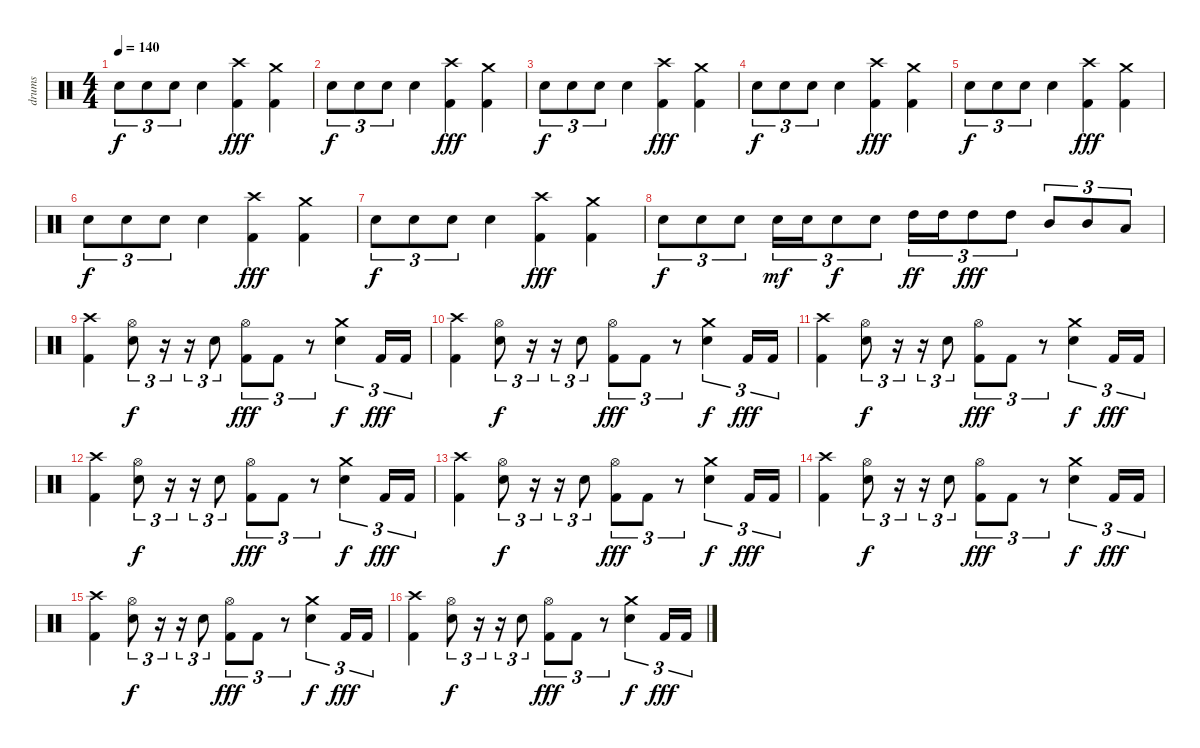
\track ("drums" "drums") {instrument percussion}
\staff {score}
\articulation defaults
\ts (4 4)
\tempo 140
\clef neutral
\ks c "Snare (hit) 2".8{tu (3 2) dy f} "Snare (hit) 2".8{tu (3 2)} "Snare (hit) 2".8{tu (3 2)} "Snare (hit) 2".4
("Crash high (hit)" "Kick (hit) 2").4{dy fff} ("Crash medium (hit)" "Kick (hit) 2").4 |
"Snare (hit) 2".8{tu (3 2) dy f} "Snare (hit) 2".8{tu (3 2)} "Snare (hit) 2".8{tu (3 2)} "Snare (hit) 2".4 ("Crash high (hit)" "Kick (hit) 2").4{dy fff} ("Crash medium (hit)" "Kick (hit) 2").4 |
"Snare (hit) 2".8{tu (3 2) dy f} "Snare (hit) 2".8{tu (3 2)} "Snare (hit) 2".8{tu (3 2)} "Snare (hit) 2".4 ("Crash high (hit)" "Kick (hit) 2").4{dy fff} ("Crash medium (hit)" "Kick (hit) 2").4 |
"Snare (hit) 2".8{tu (3 2) dy f} "Snare (hit) 2".8{tu (3 2)} "Snare (hit) 2".8{tu (3 2)} "Snare (hit) 2".4 ("Crash high (hit)" "Kick (hit) 2").4{dy fff} ("Crash medium (hit)" "Kick (hit) 2").4 |
"Snare (hit) 2".8{tu (3 2) dy f} "Snare (hit) 2".8{tu (3 2)} "Snare (hit) 2".8{tu (3 2)} "Snare (hit) 2".4 ("Crash high (hit)" "Kick (hit) 2").4{dy fff} ("Crash medium (hit)" "Kick (hit) 2").4 |
"Snare (hit) 2".8{tu (3 2) dy f} "Snare (hit) 2".8{tu (3 2)} "Snare (hit) 2".8{tu (3 2)} "Snare (hit) 2".4 ("Crash high (hit)" "Kick (hit) 2").4{dy fff} ("Crash medium (hit)" "Kick (hit) 2").4 |
"Snare (hit) 2".8{tu (3 2) dy f} "Snare (hit) 2".8{tu (3 2)} "Snare (hit) 2".8{tu (3 2)} "Snare (hit) 2".4 ("Crash high (hit)" "Kick (hit) 2").4{dy fff} ("Crash medium (hit)" "Kick (hit) 2").4 |
"Snare (hit) 2".8{tu (3 2) dy f} "Snare (hit) 2".8{tu (3 2)} "Snare (hit) 2".8{tu (3 2)} "Snare (hit) 2".16{tu (3 2) dy mf} "Snare (hit) 2".16{tu (3 2)} "Snare (hit) 2".8{tu (3 2) dy f} "Snare (hit) 2".8{tu (3 2)} "High Tom (hit)".16{tu (3 2) dy ff} "High Tom (hit)".16{tu (3 2)} "High Tom (hit)".8{tu (3 2) dy fff} "High Tom (hit)".8{tu (3 2)} "Mid Tom (hit)".8{tu (3 2)} "Mid Tom (hit)".8{tu (3 2)} "Low Tom (hit)".8{tu (3 2)} |
("Crash high (hit)" "Kick (hit) 2").4 ("Hi-Hat (open)" "Snare (hit) 2").8{tu (3 2) dy f} r.16{tu (3 2)} r.16{tu (3 2)} "Snare (hit) 2".8{tu (3 2)} ("Hi-Hat (open)" "Kick (hit) 2").8{tu (3 2) dy fff} "Kick (hit) 2".8{tu (3 2)} r.8{tu (3 2)} ("Crash medium (hit)" "Snare (hit) 2").4{tu (3 2) dy f} "Kick (hit) 2".16{tu (3 2) dy fff} "Kick (hit) 2".16{tu (3 2)} |
("Crash high (hit)" "Kick (hit) 2").4 ("Hi-Hat (open)" "Snare (hit) 2").8{tu (3 2) dy f} r.16{tu (3 2)} r.16{tu (3 2)} "Snare (hit) 2".8{tu (3 2)} ("Hi-Hat (open)" "Kick (hit) 2").8{tu (3 2) dy fff} "Kick (hit) 2".8{tu (3 2)} r.8{tu (3 2)} ("Crash medium (hit)" "Snare (hit) 2").4{tu (3 2) dy f} "Kick (hit) 2".16{tu (3 2) dy fff} "Kick (hit) 2".16{tu (3 2)} |
("Crash high (hit)" "Kick (hit) 2").4 ("Hi-Hat (open)" "Snare (hit) 2").8{tu (3 2) dy f} r.16{tu (3 2)} r.16{tu (3 2)} "Snare (hit) 2".8{tu (3 2)} ("Hi-Hat (open)" "Kick (hit) 2").8{tu (3 2) dy fff} "Kick (hit) 2".8{tu (3 2)} r.8{tu (3 2)} ("Crash medium (hit)" "Snare (hit) 2").4{tu (3 2) dy f} "Kick (hit) 2".16{tu (3 2) dy fff} "Kick (hit) 2".16{tu (3 2)} |
("Crash high (hit)" "Kick (hit) 2").4 ("Hi-Hat (open)" "Snare (hit) 2").8{tu (3 2) dy f} r.16{tu (3 2)} r.16{tu (3 2)} "Snare (hit) 2".8{tu (3 2)} ("Hi-Hat (open)" "Kick (hit) 2").8{tu (3 2) dy fff} "Kick (hit) 2".8{tu (3 2)} r.8{tu (3 2)} ("Crash medium (hit)" "Snare (hit) 2").4{tu (3 2) dy f} "Kick (hit) 2".16{tu (3 2) dy fff} "Kick (hit) 2".16{tu (3 2)} |
("Crash high (hit)" "Kick (hit) 2").4 ("Hi-Hat (open)" "Snare (hit) 2").8{tu (3 2) dy f} r.16{tu (3 2)} r.16{tu (3 2)} "Snare (hit) 2".8{tu (3 2)} ("Hi-Hat (open)" "Kick (hit) 2").8{tu (3 2) dy fff} "Kick (hit) 2".8{tu (3 2)} r.8{tu (3 2)} ("Crash medium (hit)" "Snare (hit) 2").4{tu (3 2) dy f} "Kick (hit) 2".16{tu (3 2) dy fff} "Kick (hit) 2".16{tu (3 2)} |
("Crash high (hit)" "Kick (hit) 2").4 ("Hi-Hat (open)" "Snare (hit) 2").8{tu (3 2) dy f} r.16{tu (3 2)} r.16{tu (3 2)} "Snare (hit) 2".8{tu (3 2)} ("Hi-Hat (open)" "Kick (hit) 2").8{tu (3 2) dy fff} "Kick (hit) 2".8{tu (3 2)} r.8{tu (3 2)} ("Crash medium (hit)" "Snare (hit) 2").4{tu (3 2) dy f} "Kick (hit) 2".16{tu (3 2) dy fff} "Kick (hit) 2".16{tu (3 2)} |
("Crash high (hit)" "Kick (hit) 2").4 ("Hi-Hat (open)" "Snare (hit) 2").8{tu (3 2) dy f} r.16{tu (3 2)} r.16{tu (3 2)} "Snare (hit) 2".8{tu (3 2)} ("Hi-Hat (open)" "Kick (hit) 2").8{tu (3 2) dy fff} "Kick (hit) 2".8{tu (3 2)} r.8{tu (3 2)} ("Crash medium (hit)" "Snare (hit) 2").4{tu (3 2) dy f} "Kick (hit) 2".16{tu (3 2) dy fff} "Kick (hit) 2".16{tu (3 2)} |
("Crash high (hit)" "Kick (hit) 2").4 ("Hi-Hat (open)" "Snare (hit) 2").8{tu (3 2) dy f} r.16{tu (3 2)} r.16{tu (3 2)} "Snare (hit) 2".8{tu (3 2)} ("Hi-Hat (open)" "Kick (hit) 2").8{tu (3 2) dy fff} "Kick (hit) 2".8{tu (3 2)} r.8{tu (3 2)} ("Crash medium (hit)" "Snare (hit) 2").4{tu (3 2) dy f} "Kick (hit) 2".16{tu (3 2) dy fff} "Kick (hit) 2".16{tu (3 2)}
